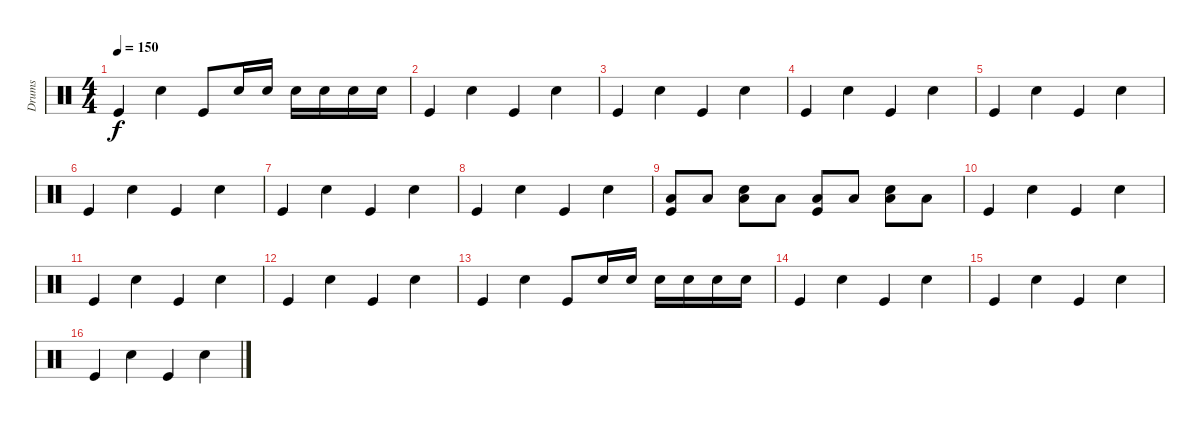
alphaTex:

\track ("Drums" "Drums") {instrument percussion}
\staff {score}
\articulation defaults
\ts (4 4)
\tempo 150
\clef neutral
\ks c "Kick (hit)".4{dy f} "Snare (hit) 2".4 "Kick (hit)".8 "Snare (hit) 2".16 "Snare (hit) 2".16 "Snare (hit) 2".16 "Snare (hit) 2".16 "Snare (hit) 2".16 "Snare (hit) 2".16
|
"Kick (hit)".4 "Snare (hit) 2".4 "Kick (hit)".4 "Snare (hit) 2".4 |
"Kick (hit)".4 "Snare (hit) 2".4 "Kick (hit)".4 "Snare (hit) 2".4 |
"Kick (hit)".4 "Snare (hit) 2".4 "Kick (hit)".4 "Snare (hit) 2".4 |
"Kick (hit)".4 "Snare (hit) 2".4 "Kick (hit)".4 "Snare (hit) 2".4 |
"Kick (hit)".4 "Snare (hit) 2".4 "Kick (hit)".4 "Snare (hit) 2".4 |
"Kick (hit)".4 "Snare (hit) 2".4 "Kick (hit)".4 "Snare (hit) 2".4 |
"Kick (hit)".4 "Snare (hit) 2".4 "Kick (hit)".4 "Snare (hit) 2".4 |
("Low Tom (hit)" "Kick (hit)").8 "Low Tom (hit)".8 ("Low Tom (hit)" "Snare (hit) 2").8 "Low Tom (hit)".8 ("Low Tom (hit)" "Kick (hit)").8 "Low Tom (hit)".8 ("Low Tom (hit)" "Snare (hit) 2").8 "Low Tom (hit)".8 |
"Kick (hit)".4 "Snare (hit) 2".4 "Kick (hit)".4 "Snare (hit) 2".4 |
"Kick (hit)".4 "Snare (hit) 2".4 "Kick (hit)".4 "Snare (hit) 2".4 |
"Kick (hit)".4 "Snare (hit) 2".4 "Kick (hit)".4 "Snare (hit) 2".4 |
"Kick (hit)".4 "Snare (hit) 2".4 "Kick (hit)".8 "Snare (hit) 2".16 "Snare (hit) 2".16 "Snare (hit) 2".16 "Snare (hit) 2".16 "Snare (hit) 2".16 "Snare (hit) 2".16 |
"Kick (hit)".4 "Snare (hit) 2".4 "Kick (hit)".4 "Snare (hit) 2".4 |
"Kick (hit)".4 "Snare (hit) 2".4 "Kick (hit)".4 "Snare (hit) 2".4 |
"Kick (hit)".4 "Snare (hit) 2".4 "Kick (hit)".4 "Snare (hit) 2".4
